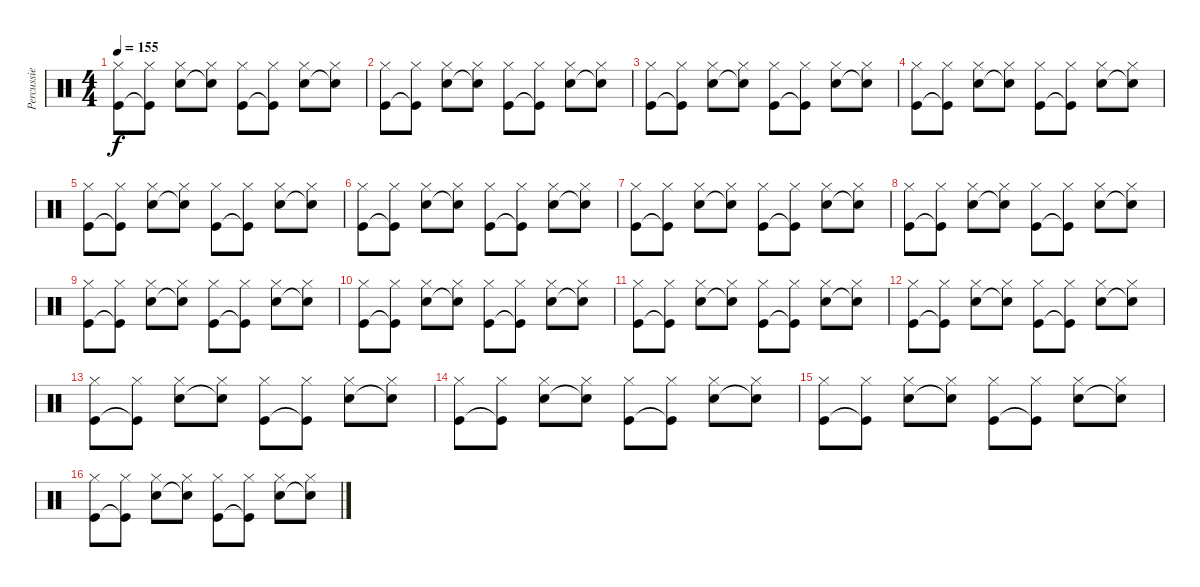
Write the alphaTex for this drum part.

\track ("Percussie" "Percussie") {instrument percussion}
\staff {score}
\articulation defaults
\ts (4 4)
\tempo 155
\clef neutral
\ks c
("Hi-Hat (closed)" "Kick (hit)").8{dy f} ("Hi-Hat (closed)" "Kick (hit)"{t}).8 ("Hi-Hat (closed)" "Snare (hit) 2").8 ("Hi-Hat (closed)" "Snare (hit) 2"{t}).8 ("Hi-Hat (closed)" "Kick (hit)").8 ("Hi-Hat (closed)" "Kick (hit)"{t}).8 ("Hi-Hat (closed)" "Snare (hit) 2").8 ("Hi-Hat (closed)" "Snare (hit) 2"{t}).8 |
("Hi-Hat (closed)" "Kick (hit)").8 ("Hi-Hat (closed)" "Kick (hit)"{t}).8 ("Hi-Hat (closed)" "Snare (hit) 2").8 ("Hi-Hat (closed)" "Snare (hit) 2"{t}).8 ("Hi-Hat (closed)" "Kick (hit)").8 ("Hi-Hat (closed)" "Kick (hit)"{t}).8 ("Hi-Hat (closed)" "Snare (hit) 2").8 ("Hi-Hat (closed)" "Snare (hit) 2"{t}).8 |
("Hi-Hat (closed)" "Kick (hit)").8 ("Hi-Hat (closed)" "Kick (hit)"{t}).8 ("Hi-Hat (closed)" "Snare (hit) 2").8 ("Hi-Hat (closed)" "Snare (hit) 2"{t}).8 ("Hi-Hat (closed)" "Kick (hit)").8 ("Hi-Hat (closed)" "Kick (hit)"{t}).8 ("Hi-Hat (closed)" "Snare (hit) 2").8 ("Hi-Hat (closed)" "Snare (hit) 2"{t}).8 |
("Hi-Hat (closed)" "Kick (hit)").8 ("Hi-Hat (closed)" "Kick (hit)"{t}).8 ("Hi-Hat (closed)" "Snare (hit) 2").8 ("Hi-Hat (closed)" "Snare (hit) 2"{t}).8 ("Hi-Hat (closed)" "Kick (hit)").8 ("Hi-Hat (closed)" "Kick (hit)"{t}).8 ("Hi-Hat (closed)" "Snare (hit) 2").8 ("Hi-Hat (closed)" "Snare (hit) 2"{t}).8 |
("Hi-Hat (closed)" "Kick (hit)").8 ("Hi-Hat (closed)" "Kick (hit)"{t}).8 ("Hi-Hat (closed)" "Snare (hit) 2").8 ("Hi-Hat (closed)" "Snare (hit) 2"{t}).8 ("Hi-Hat (closed)" "Kick (hit)").8 ("Hi-Hat (closed)" "Kick (hit)"{t}).8 ("Hi-Hat (closed)" "Snare (hit) 2").8 ("Hi-Hat (closed)" "Snare (hit) 2"{t}).8 |
("Hi-Hat (closed)" "Kick (hit)").8 ("Hi-Hat (closed)" "Kick (hit)"{t}).8 ("Hi-Hat (closed)" "Snare (hit) 2").8 ("Hi-Hat (closed)" "Snare (hit) 2"{t}).8 ("Hi-Hat (closed)" "Kick (hit)").8 ("Hi-Hat (closed)" "Kick (hit)"{t}).8 ("Hi-Hat (closed)" "Snare (hit) 2").8 ("Hi-Hat (closed)" "Snare (hit) 2"{t}).8 |
("Hi-Hat (closed)" "Kick (hit)").8 ("Hi-Hat (closed)" "Kick (hit)"{t}).8 ("Hi-Hat (closed)" "Snare (hit) 2").8 ("Hi-Hat (closed)" "Snare (hit) 2"{t}).8 ("Hi-Hat (closed)" "Kick (hit)").8 ("Hi-Hat (closed)" "Kick (hit)"{t}).8 ("Hi-Hat (closed)" "Snare (hit) 2").8 ("Hi-Hat (closed)" "Snare (hit) 2"{t}).8 |
("Hi-Hat (closed)" "Kick (hit)").8 ("Hi-Hat (closed)" "Kick (hit)"{t}).8 ("Hi-Hat (closed)" "Snare (hit) 2").8 ("Hi-Hat (closed)" "Snare (hit) 2"{t}).8 ("Hi-Hat (closed)" "Kick (hit)").8 ("Hi-Hat (closed)" "Kick (hit)"{t}).8 ("Hi-Hat (closed)" "Snare (hit) 2").8 ("Hi-Hat (closed)" "Snare (hit) 2"{t}).8 |
("Hi-Hat (closed)" "Kick (hit)").8 ("Hi-Hat (closed)" "Kick (hit)"{t}).8 ("Hi-Hat (closed)" "Snare (hit) 2").8 ("Hi-Hat (closed)" "Snare (hit) 2"{t}).8 ("Hi-Hat (closed)" "Kick (hit)").8 ("Hi-Hat (closed)" "Kick (hit)"{t}).8 ("Hi-Hat (closed)" "Snare (hit) 2").8 ("Hi-Hat (closed)" "Snare (hit) 2"{t}).8 |
("Hi-Hat (closed)" "Kick (hit)").8 ("Hi-Hat (closed)" "Kick (hit)"{t}).8 ("Hi-Hat (closed)" "Snare (hit) 2").8 ("Hi-Hat (closed)" "Snare (hit) 2"{t}).8 ("Hi-Hat (closed)" "Kick (hit)").8 ("Hi-Hat (closed)" "Kick (hit)"{t}).8 ("Hi-Hat (closed)" "Snare (hit) 2").8 ("Hi-Hat (closed)" "Snare (hit) 2"{t}).8 |
("Hi-Hat (closed)" "Kick (hit)").8 ("Hi-Hat (closed)" "Kick (hit)"{t}).8 ("Hi-Hat (closed)" "Snare (hit) 2").8 ("Hi-Hat (closed)" "Snare (hit) 2"{t}).8 ("Hi-Hat (closed)" "Kick (hit)").8 ("Hi-Hat (closed)" "Kick (hit)"{t}).8 ("Hi-Hat (closed)" "Snare (hit) 2").8 ("Hi-Hat (closed)" "Snare (hit) 2"{t}).8 |
("Hi-Hat (closed)" "Kick (hit)").8 ("Hi-Hat (closed)" "Kick (hit)"{t}).8 ("Hi-Hat (closed)" "Snare (hit) 2").8 ("Hi-Hat (closed)" "Snare (hit) 2"{t}).8 ("Hi-Hat (closed)" "Kick (hit)").8 ("Hi-Hat (closed)" "Kick (hit)"{t}).8 ("Hi-Hat (closed)" "Snare (hit) 2").8 ("Hi-Hat (closed)" "Snare (hit) 2"{t}).8 |
("Hi-Hat (closed)" "Kick (hit)").8 ("Hi-Hat (closed)" "Kick (hit)"{t}).8 ("Hi-Hat (closed)" "Snare (hit) 2").8 ("Hi-Hat (closed)" "Snare (hit) 2"{t}).8 ("Hi-Hat (closed)" "Kick (hit)").8 ("Hi-Hat (closed)" "Kick (hit)"{t}).8 ("Hi-Hat (closed)" "Snare (hit) 2").8 ("Hi-Hat (closed)" "Snare (hit) 2"{t}).8 |
("Hi-Hat (closed)" "Kick (hit)").8 ("Hi-Hat (closed)" "Kick (hit)"{t}).8 ("Hi-Hat (closed)" "Snare (hit) 2").8 ("Hi-Hat (closed)" "Snare (hit) 2"{t}).8 ("Hi-Hat (closed)" "Kick (hit)").8 ("Hi-Hat (closed)" "Kick (hit)"{t}).8 ("Hi-Hat (closed)" "Snare (hit) 2").8 ("Hi-Hat (closed)" "Snare (hit) 2"{t}).8 |
("Hi-Hat (closed)" "Kick (hit)").8 ("Hi-Hat (closed)" "Kick (hit)"{t}).8 ("Hi-Hat (closed)" "Snare (hit) 2").8 ("Hi-Hat (closed)" "Snare (hit) 2"{t}).8 ("Hi-Hat (closed)" "Kick (hit)").8 ("Hi-Hat (closed)" "Kick (hit)"{t}).8 ("Hi-Hat (closed)" "Snare (hit) 2").8 ("Hi-Hat (closed)" "Snare (hit) 2"{t}).8 |
("Hi-Hat (closed)" "Kick (hit)").8 ("Hi-Hat (closed)" "Kick (hit)"{t}).8 ("Hi-Hat (closed)" "Snare (hit) 2").8 ("Hi-Hat (closed)" "Snare (hit) 2"{t}).8 ("Hi-Hat (closed)" "Kick (hit)").8 ("Hi-Hat (closed)" "Kick (hit)"{t}).8 ("Hi-Hat (closed)" "Snare (hit) 2").8 ("Hi-Hat (closed)" "Snare (hit) 2"{t}).8
